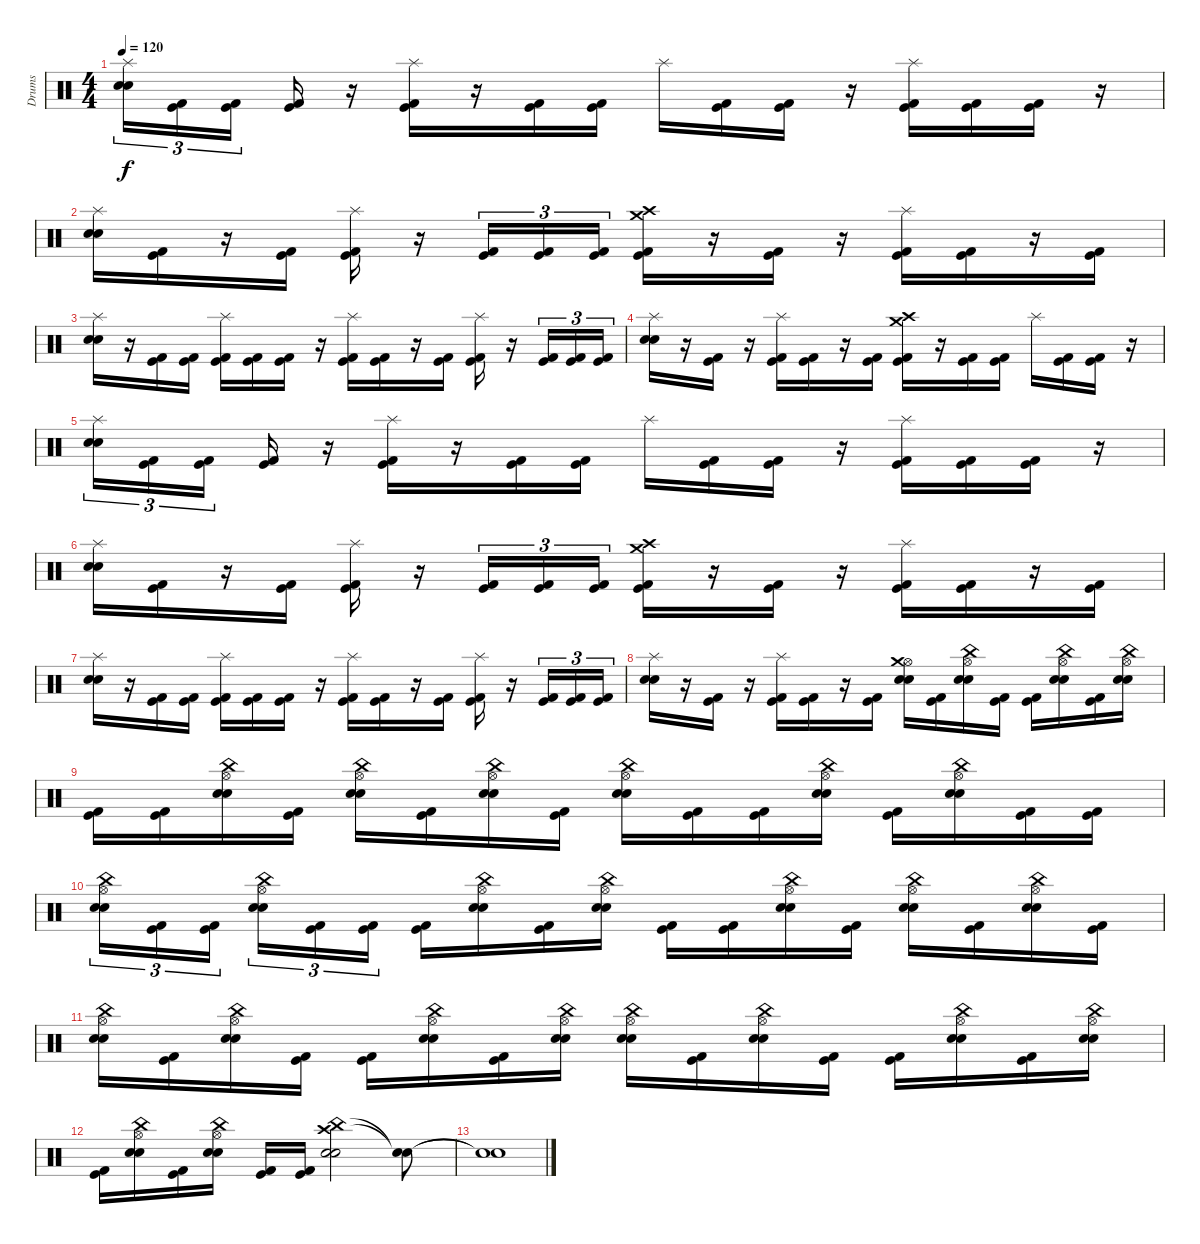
\track ("Drums" "Drums") {instrument percussion}
\staff {score}
\articulation defaults
\ts (4 4)
\tempo 120
\clef neutral
\ks c
("Splash (hit)" "Electric Snare (hit)" "Electric Snare (hit)").16{tu (3 2) dy f} ("Kick (hit) 2" "Kick (hit)").16{tu (3 2)} ("Kick (hit) 2" "Kick (hit)").16{tu (3 2) beam splitsecondary} ("Kick (hit) 2" "Kick (hit)").16 r.16 ("Splash (hit)" "Kick (hit) 2" "Kick (hit)").16 r.16 ("Kick (hit) 2" "Kick (hit)").16 ("Kick (hit) 2" "Kick (hit)").16 "Splash (hit)".16 ("Kick (hit) 2" "Kick (hit)").16 ("Kick (hit) 2" "Kick (hit)").16 r.16 ("Splash (hit)" "Kick (hit) 2" "Kick (hit)").16 ("Kick (hit) 2" "Kick (hit)").16 ("Kick (hit) 2" "Kick (hit)").16 r.16 |
("Splash (hit)" "Electric Snare (hit)" "Electric Snare (hit)").16 ("Kick (hit) 2" "Kick (hit)").16 r.16 ("Kick (hit) 2" "Kick (hit)").16 ("Splash (hit)" "Kick (hit) 2" "Kick (hit)").16 r.16 ("Kick (hit) 2" "Kick (hit)").16{tu (3 2)} ("Kick (hit) 2" "Kick (hit)").16{tu (3 2)} ("Kick (hit) 2" "Kick (hit)").16{tu (3 2)} ("Crash high (hit)" "Crash medium (hit)" "Kick (hit) 2" "Kick (hit)").16 r.16 ("Kick (hit) 2" "Kick (hit)").16 r.16 ("Splash (hit)" "Kick (hit) 2" "Kick (hit)").16 ("Kick (hit) 2" "Kick (hit)").16 r.16 ("Kick (hit) 2" "Kick (hit)").16 |
("Splash (hit)" "Electric Snare (hit)" "Electric Snare (hit)").16 r.16 ("Kick (hit) 2" "Kick (hit)").16 ("Kick (hit) 2" "Kick (hit)").16 ("Splash (hit)" "Kick (hit) 2" "Kick (hit)").16 ("Kick (hit) 2" "Kick (hit)").16 ("Kick (hit) 2" "Kick (hit)").16 r.16 ("Splash (hit)" "Kick (hit) 2" "Kick (hit)").16 ("Kick (hit) 2" "Kick (hit)").16 r.16 ("Kick (hit) 2" "Kick (hit)").16 ("Splash (hit)" "Kick (hit) 2" "Kick (hit)").16 r.16 ("Kick (hit) 2" "Kick (hit)").16{tu (3 2)} ("Kick (hit) 2" "Kick (hit)").16{tu (3 2)} ("Kick (hit) 2" "Kick (hit)").16{tu (3 2)} |
("Splash (hit)" "Electric Snare (hit)" "Electric Snare (hit)").16 r.16 ("Kick (hit) 2" "Kick (hit)").16 r.16 ("Splash (hit)" "Kick (hit) 2" "Kick (hit)").16 ("Kick (hit) 2" "Kick (hit)").16 r.16 ("Kick (hit) 2" "Kick (hit)").16 ("Crash high (hit)" "Crash medium (hit)" "Kick (hit) 2" "Kick (hit)").16 r.16 ("Kick (hit) 2" "Kick (hit)").16 ("Kick (hit) 2" "Kick (hit)").16 "Splash (hit)".16 ("Kick (hit) 2" "Kick (hit)").16 ("Kick (hit) 2" "Kick (hit)").16 r.16 |
("Splash (hit)" "Electric Snare (hit)" "Electric Snare (hit)").16{tu (3 2)} ("Kick (hit) 2" "Kick (hit)").16{tu (3 2)} ("Kick (hit) 2" "Kick (hit)").16{tu (3 2) beam splitsecondary} ("Kick (hit) 2" "Kick (hit)").16 r.16 ("Splash (hit)" "Kick (hit) 2" "Kick (hit)").16 r.16 ("Kick (hit) 2" "Kick (hit)").16 ("Kick (hit) 2" "Kick (hit)").16 "Splash (hit)".16 ("Kick (hit) 2" "Kick (hit)").16 ("Kick (hit) 2" "Kick (hit)").16 r.16 ("Splash (hit)" "Kick (hit) 2" "Kick (hit)").16 ("Kick (hit) 2" "Kick (hit)").16 ("Kick (hit) 2" "Kick (hit)").16 r.16 |
("Splash (hit)" "Electric Snare (hit)" "Electric Snare (hit)").16 ("Kick (hit) 2" "Kick (hit)").16 r.16 ("Kick (hit) 2" "Kick (hit)").16 ("Splash (hit)" "Kick (hit) 2" "Kick (hit)").16 r.16 ("Kick (hit) 2" "Kick (hit)").16{tu (3 2)} ("Kick (hit) 2" "Kick (hit)").16{tu (3 2)} ("Kick (hit) 2" "Kick (hit)").16{tu (3 2)} ("Crash high (hit)" "Crash medium (hit)" "Kick (hit) 2" "Kick (hit)").16 r.16 ("Kick (hit) 2" "Kick (hit)").16 r.16 ("Splash (hit)" "Kick (hit) 2" "Kick (hit)").16 ("Kick (hit) 2" "Kick (hit)").16 r.16 ("Kick (hit) 2" "Kick (hit)").16 |
("Splash (hit)" "Electric Snare (hit)" "Electric Snare (hit)").16 r.16 ("Kick (hit) 2" "Kick (hit)").16 ("Kick (hit) 2" "Kick (hit)").16 ("Splash (hit)" "Kick (hit) 2" "Kick (hit)").16 ("Kick (hit) 2" "Kick (hit)").16 ("Kick (hit) 2" "Kick (hit)").16 r.16 ("Splash (hit)" "Kick (hit) 2" "Kick (hit)").16 ("Kick (hit) 2" "Kick (hit)").16 r.16 ("Kick (hit) 2" "Kick (hit)").16 ("Splash (hit)" "Kick (hit) 2" "Kick (hit)").16 r.16 ("Kick (hit) 2" "Kick (hit)").16{tu (3 2)} ("Kick (hit) 2" "Kick (hit)").16{tu (3 2)} ("Kick (hit) 2" "Kick (hit)").16{tu (3 2)} |
("Splash (hit)" "Electric Snare (hit)" "Electric Snare (hit)").16 r.16 ("Kick (hit) 2" "Kick (hit)").16 r.16 ("Splash (hit)" "Kick (hit) 2" "Kick (hit)").16 ("Kick (hit) 2" "Kick (hit)").16 r.16 ("Kick (hit) 2" "Kick (hit)").16 ("Hi-Hat (open)" "Crash medium (hit)" "Electric Snare (hit)" "Electric Snare (hit)").16 ("Kick (hit) 2" "Kick (hit)").16 ("China (hit)" "Hi-Hat (open)" "Electric Snare (hit)" "Electric Snare (hit)").16 ("Kick (hit) 2" "Kick (hit)").16 ("Kick (hit) 2" "Kick (hit)").16 ("China (hit)" "Hi-Hat (open)" "Electric Snare (hit)" "Electric Snare (hit)").16 ("Kick (hit) 2" "Kick (hit)").16 ("China (hit)" "Hi-Hat (open)" "Electric Snare (hit)" "Electric Snare (hit)").16 |
("Kick (hit) 2" "Kick (hit)").16 ("Kick (hit) 2" "Kick (hit)").16 ("China (hit)" "Hi-Hat (open)" "Electric Snare (hit)" "Electric Snare (hit)").16 ("Kick (hit) 2" "Kick (hit)").16 ("China (hit)" "Hi-Hat (open)" "Electric Snare (hit)" "Electric Snare (hit)").16 ("Kick (hit) 2" "Kick (hit)").16 ("China (hit)" "Hi-Hat (open)" "Electric Snare (hit)" "Electric Snare (hit)").16 ("Kick (hit) 2" "Kick (hit)").16 ("China (hit)" "Hi-Hat (open)" "Electric Snare (hit)" "Electric Snare (hit)").16 ("Kick (hit) 2" "Kick (hit)").16 ("Kick (hit) 2" "Kick (hit)").16 ("China (hit)" "Hi-Hat (open)" "Electric Snare (hit)" "Electric Snare (hit)").16 ("Kick (hit) 2" "Kick (hit)").16 ("China (hit)" "Hi-Hat (open)" "Electric Snare (hit)" "Electric Snare (hit)").16 ("Kick (hit) 2" "Kick (hit)").16 ("Kick (hit) 2" "Kick (hit)").16 |
("China (hit)" "Hi-Hat (open)" "Electric Snare (hit)" "Electric Snare (hit)").16{tu (3 2)} ("Kick (hit) 2" "Kick (hit)").16{tu (3 2)} ("Kick (hit) 2" "Kick (hit)").16{tu (3 2) beam splitsecondary} ("China (hit)" "Hi-Hat (open)" "Electric Snare (hit)" "Electric Snare (hit)").16{tu (3 2)} ("Kick (hit) 2" "Kick (hit)").16{tu (3 2)} ("Kick (hit) 2" "Kick (hit)").16{tu (3 2)} ("Kick (hit) 2" "Kick (hit)").16 ("China (hit)" "Hi-Hat (open)" "Electric Snare (hit)" "Electric Snare (hit)").16 ("Kick (hit) 2" "Kick (hit)").16 ("China (hit)" "Hi-Hat (open)" "Electric Snare (hit)" "Electric Snare (hit)").16 ("Kick (hit) 2" "Kick (hit)").16 ("Kick (hit) 2" "Kick (hit)").16 ("China (hit)" "Hi-Hat (open)" "Electric Snare (hit)" "Electric Snare (hit)").16 ("Kick (hit) 2" "Kick (hit)").16 ("China (hit)" "Hi-Hat (open)" "Electric Snare (hit)" "Electric Snare (hit)").16 ("Kick (hit) 2" "Kick (hit)").16 ("China (hit)" "Hi-Hat (open)" "Electric Snare (hit)" "Electric Snare (hit)").16 ("Kick (hit) 2" "Kick (hit)").16 |
("China (hit)" "Hi-Hat (open)" "Electric Snare (hit)" "Electric Snare (hit)").16 ("Kick (hit) 2" "Kick (hit)").16 ("China (hit)" "Hi-Hat (open)" "Electric Snare (hit)" "Electric Snare (hit)").16 ("Kick (hit) 2" "Kick (hit)").16 ("Kick (hit) 2" "Kick (hit)").16 ("China (hit)" "Hi-Hat (open)" "Electric Snare (hit)" "Electric Snare (hit)").16 ("Kick (hit) 2" "Kick (hit)").16 ("China (hit)" "Hi-Hat (open)" "Electric Snare (hit)" "Electric Snare (hit)").16 ("China (hit)" "Hi-Hat (open)" "Electric Snare (hit)" "Electric Snare (hit)").16 ("Kick (hit) 2" "Kick (hit)").16 ("China (hit)" "Hi-Hat (open)" "Electric Snare (hit)" "Electric Snare (hit)").16 ("Kick (hit) 2" "Kick (hit)").16 ("Kick (hit) 2" "Kick (hit)").16 ("China (hit)" "Hi-Hat (open)" "Electric Snare (hit)" "Electric Snare (hit)").16 ("Kick (hit) 2" "Kick (hit)").16 ("China (hit)" "Hi-Hat (open)" "Electric Snare (hit)" "Electric Snare (hit)").16 |
("Kick (hit) 2" "Kick (hit)").16 ("China (hit)" "Hi-Hat (open)" "Electric Snare (hit)" "Electric Snare (hit)").16 ("Kick (hit) 2" "Kick (hit)").16 ("China (hit)" "Hi-Hat (open)" "Electric Snare (hit)" "Electric Snare (hit)").16 ("Kick (hit) 2" "Kick (hit)").16 ("Kick (hit) 2" "Kick (hit)").16 ("Crash high (hit)" "China (hit)" "Electric Snare (hit)" "Electric Snare (hit)").2 ("Snare (hit)"{t} "Snare (hit)"{t}).8 |
("Snare (hit)"{t} "Snare (hit)"{t}).1
